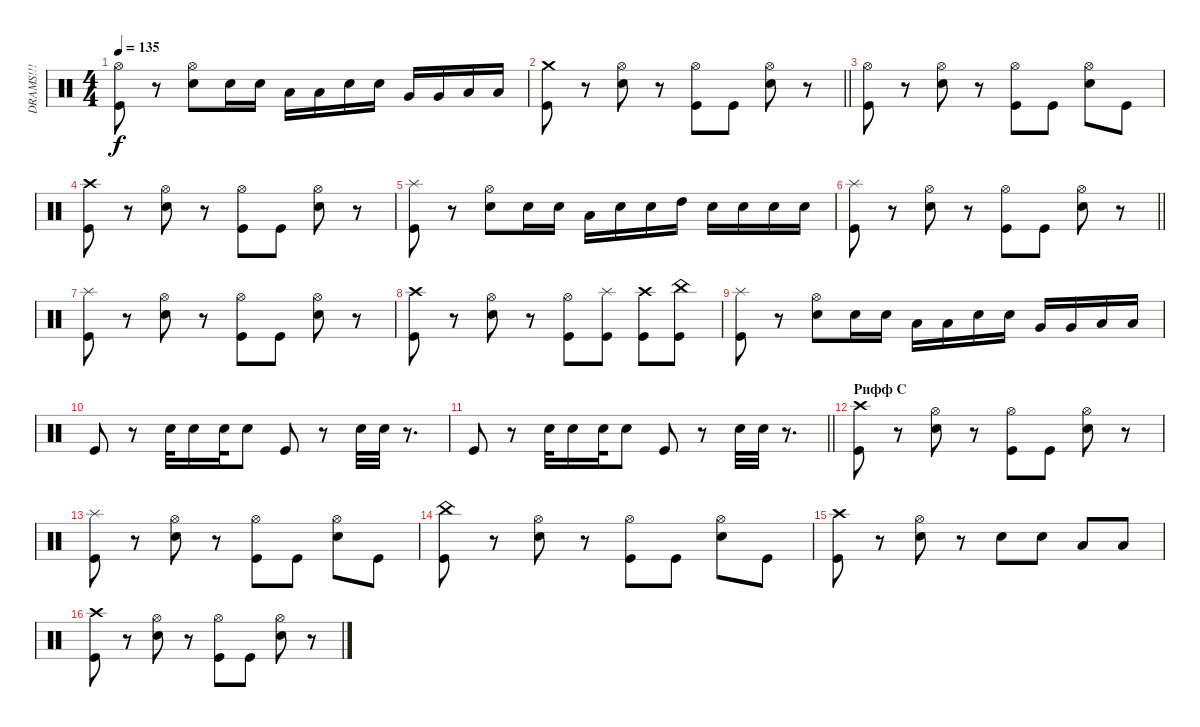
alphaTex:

\track ("DRAMS!!!" "DRAMS!!!") {instrument percussion}
\staff {score}
\articulation defaults
\ts (4 4)
\tempo 135
\clef neutral
\ks c
("Kick (hit)" "Hi-Hat (open)").8{dy f} r.8 ("Electric Snare (hit)" "Hi-Hat (open)").8 "Electric Snare (hit)".16 "Electric Snare (hit)".16 "Low Floor Tom (hit)".16 "Low Floor Tom (hit)".16 "Electric Snare (hit)".16 "Electric Snare (hit)".16 "Very Low Tom (hit)".16 "Very Low Tom (hit)".16 "Low Tom (hit)".16 "Low Tom (hit)".16 |
\barLineRight lightlight
("Kick (hit)" "Crash medium (hit)").8 r.8 ("Electric Snare (hit)" "Hi-Hat (open)").8 r.8 ("Kick (hit)" "Hi-Hat (open)").8 "Kick (hit)".8 ("Electric Snare (hit)" "Hi-Hat (open)").8 r.8 |
("Kick (hit)" "Hi-Hat (open)").8 r.8 ("Electric Snare (hit)" "Hi-Hat (open)").8 r.8 ("Kick (hit)" "Hi-Hat (open)").8 "Kick (hit)".8 ("Electric Snare (hit)" "Hi-Hat (open)").8 "Kick (hit)".8 |
("Kick (hit)" "Crash high (hit)").8 r.8 ("Electric Snare (hit)" "Hi-Hat (open)").8 r.8 ("Kick (hit)" "Hi-Hat (open)").8 "Kick (hit)".8 ("Electric Snare (hit)" "Hi-Hat (open)").8 r.8 |
("Kick (hit)" "Splash (hit)").8 r.8 ("Electric Snare (hit)" "Hi-Hat (open)").8 "Electric Snare (hit)".16 "Electric Snare (hit)".16 "Low Tom (hit)".16 "Electric Snare (hit)".16 "Electric Snare (hit)".16 "High Tom (hit)".16 "Electric Snare (hit)".16 "Electric Snare (hit)".16 "Electric Snare (hit)".16 "Electric Snare (hit)".16 |
\barLineRight lightlight
("Kick (hit)" "Splash (hit)").8 r.8 ("Electric Snare (hit)" "Hi-Hat (open)").8 r.8 ("Kick (hit)" "Hi-Hat (open)").8 "Kick (hit)".8 ("Electric Snare (hit)" "Hi-Hat (open)").8 r.8 |
("Kick (hit)" "Splash (hit)").8 r.8 ("Electric Snare (hit)" "Hi-Hat (open)").8 r.8 ("Kick (hit)" "Hi-Hat (open)").8 "Kick (hit)".8 ("Electric Snare (hit)" "Hi-Hat (open)").8 r.8 |
("Kick (hit)" "Crash high (hit)").8 r.8 ("Electric Snare (hit)" "Hi-Hat (open)").8 r.8 ("Kick (hit)" "Hi-Hat (open)").8 ("Kick (hit)" "Splash (hit)").8 ("Kick (hit)" "Crash high (hit)").8 ("Kick (hit)" "China (hit)").8 |
("Kick (hit)" "Splash (hit)").8 r.8 ("Electric Snare (hit)" "Hi-Hat (open)").8 "Electric Snare (hit)".16 "Electric Snare (hit)".16 "Low Floor Tom (hit)".16 "Low Floor Tom (hit)".16 "Electric Snare (hit)".16 "Electric Snare (hit)".16 "Very Low Tom (hit)".16 "Very Low Tom (hit)".16 "Low Tom (hit)".16 "Low Tom (hit)".16 |
"Kick (hit)".8 r.8 "Electric Snare (hit)".32 "Electric Snare (hit)".16 "Electric Snare (hit)".32 "Electric Snare (hit)".8 "Kick (hit)".8 r.8 "Electric Snare (hit)".32 "Electric Snare (hit)".32 r.8{d} |
\barLineRight lightlight "Kick (hit)".8
r.8 "Electric Snare (hit)".32 "Electric Snare (hit)".16 "Electric Snare (hit)".32 "Electric Snare (hit)".8 "Kick (hit)".8 r.8 "Electric Snare (hit)".32 "Electric Snare (hit)".32 r.8{d} |
\section ("" "Рифф С")
("Kick (hit)" "Crash high (hit)").8 r.8 ("Electric Snare (hit)" "Hi-Hat (open)").8 r.8 ("Kick (hit)" "Hi-Hat (open)").8 "Kick (hit)".8 ("Electric Snare (hit)" "Hi-Hat (open)").8 r.8 |
("Kick (hit)" "Splash (hit)").8 r.8 ("Electric Snare (hit)" "Hi-Hat (open)").8 r.8 ("Kick (hit)" "Hi-Hat (open)").8 "Kick (hit)".8 ("Electric Snare (hit)" "Hi-Hat (open)").8 "Kick (hit)".8 |
("Kick (hit)" "China (hit)").8 r.8 ("Electric Snare (hit)" "Hi-Hat (open)").8 r.8 ("Kick (hit)" "Hi-Hat (open)").8 "Kick (hit)".8 ("Electric Snare (hit)" "Hi-Hat (open)").8 "Kick (hit)".8 |
("Kick (hit)" "Crash high (hit)").8 r.8 ("Electric Snare (hit)" "Hi-Hat (open)").8 r.8 "Electric Snare (hit)".8 "Electric Snare (hit)".8 "Low Tom (hit)".8 "Low Tom (hit)".8 |
("Kick (hit)" "Crash high (hit)").8 r.8 ("Electric Snare (hit)" "Hi-Hat (open)").8 r.8 ("Kick (hit)" "Hi-Hat (open)").8 "Kick (hit)".8 ("Electric Snare (hit)" "Hi-Hat (open)").8 r.8
